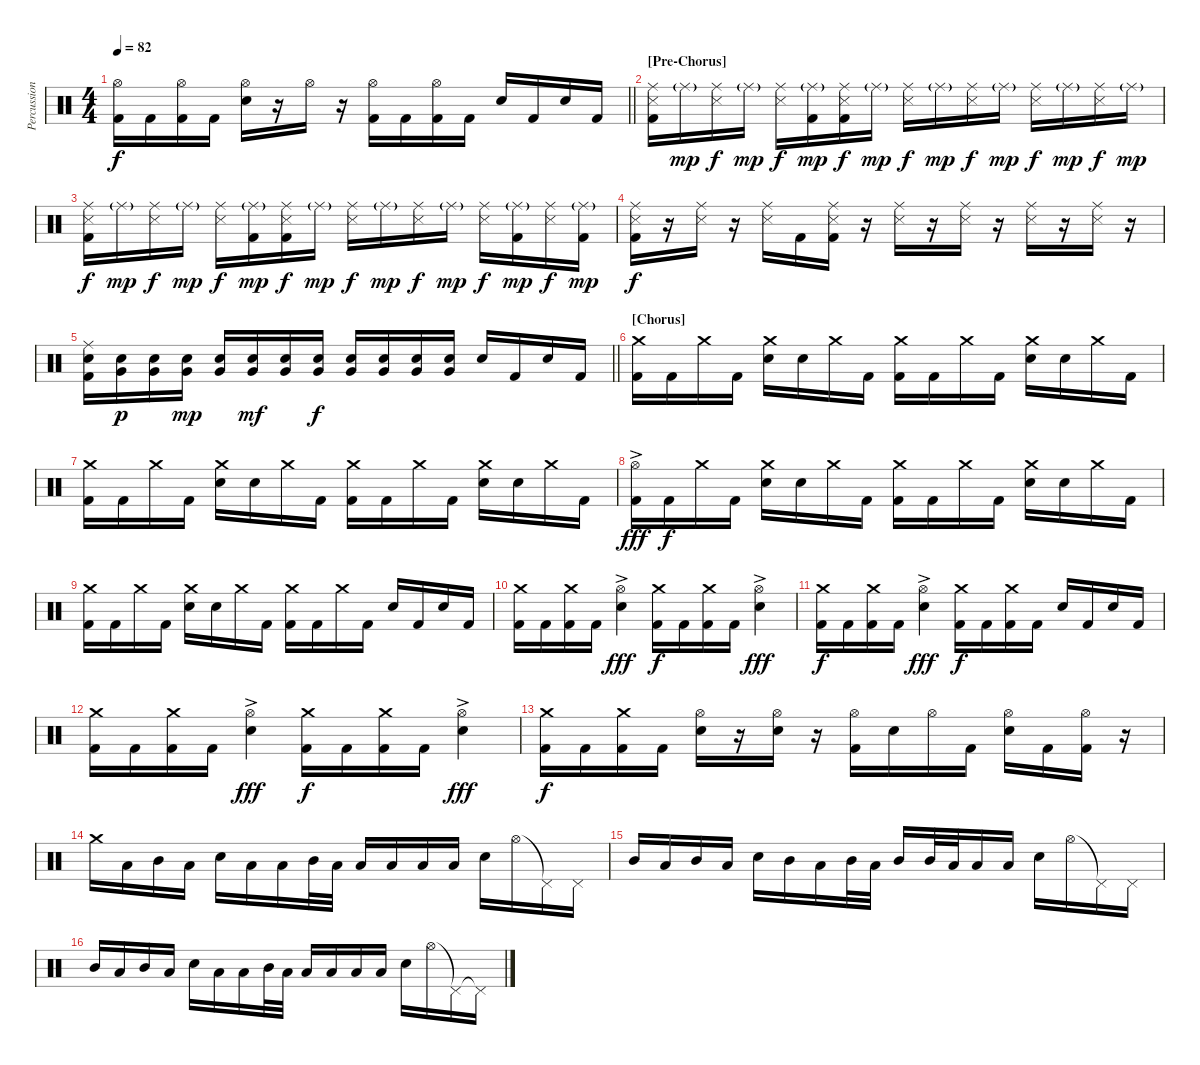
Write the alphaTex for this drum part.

\track ("Percussion" "Percussion") {instrument percussion}
\staff {score}
\articulation defaults
\ts (4 4)
\tempo 82
\clef neutral
\barLineRight lightlight
\ks c
("Hi-Hat (open)" "Kick (hit) 2").16{dy f} "Kick (hit) 2".16 ("Hi-Hat (open)" "Kick (hit) 2").16 "Kick (hit) 2".16 ("Hi-Hat (open)" "Electric Snare (hit)").16 r.16 "Hi-Hat (open)".16 r.16 ("Hi-Hat (open)" "Kick (hit) 2").16 "Kick (hit) 2".16 ("Hi-Hat (open)" "Kick (hit) 2").16 "Kick (hit) 2".16 "Electric Snare (hit)".16 "Kick (hit) 2".16 "Electric Snare (hit)".16 "Kick (hit) 2".16 |
\section ("" "[Pre-Chorus]")
("Ride (middle)" "Snare (side stick) 3" "Kick (hit) 2").16 "Ride (middle)"{g}.16{dy mp} ("Ride (middle)" "Snare (side stick) 3").16{dy f} "Ride (middle)"{g}.16{dy mp} ("Ride (middle)" "Snare (side stick) 3").16{dy f} ("Ride (middle)"{g} "Kick (hit) 2").16{dy mp} ("Ride (middle)" "Snare (side stick) 3" "Kick (hit) 2").16{dy f} "Ride (middle)"{g}.16{dy mp} ("Ride (middle)" "Snare (side stick) 3").16{dy f} "Ride (middle)"{g}.16{dy mp} ("Ride (middle)" "Snare (side stick) 3").16{dy f} "Ride (middle)"{g}.16{dy mp} ("Ride (middle)" "Snare (side stick) 3").16{dy f} "Ride (middle)"{g}.16{dy mp} ("Ride (middle)" "Snare (side stick) 3").16{dy f} "Ride (middle)"{g}.16{dy mp} |
("Ride (middle)" "Snare (side stick) 3" "Kick (hit) 2").16{dy f} "Ride (middle)"{g}.16{dy mp} ("Ride (middle)" "Snare (side stick) 3").16{dy f} "Ride (middle)"{g}.16{dy mp} ("Ride (middle)" "Snare (side stick) 3").16{dy f} ("Ride (middle)"{g} "Kick (hit) 2").16{dy mp} ("Ride (middle)" "Snare (side stick) 3" "Kick (hit) 2").16{dy f} "Ride (middle)"{g}.16{dy mp} ("Ride (middle)" "Snare (side stick) 3").16{dy f} "Ride (middle)"{g}.16{dy mp} ("Ride (middle)" "Snare (side stick) 3").16{dy f} "Ride (middle)"{g}.16{dy mp} ("Ride (middle)" "Snare (side stick) 3").16{dy f} ("Ride (middle)"{g} "Kick (hit) 2").16{dy mp} ("Ride (middle)" "Snare (side stick) 3").16{dy f} ("Ride (middle)"{g} "Kick (hit) 2").16{dy mp} |
("Ride (middle)" "Snare (side stick) 3" "Kick (hit) 2").16{dy f} r.16 ("Ride (middle)" "Snare (side stick) 3").16 r.16 ("Ride (middle)" "Snare (side stick) 3").16 "Kick (hit) 2".16 ("Ride (middle)" "Snare (side stick) 3" "Kick (hit) 2").16 r.16 ("Ride (middle)" "Snare (side stick) 3").16 r.16 ("Ride (middle)" "Snare (side stick) 3").16 r.16 ("Ride (middle)" "Snare (side stick) 3").16 r.16 ("Ride (middle)" "Snare (side stick) 3").16 r.16 |
\barLineRight lightlight
("Ride (middle)" "Electric Snare (hit)" "Kick (hit) 2").16 ("Electric Snare (hit)" "Very Low Tom (hit)").16{dy p} ("Electric Snare (hit)" "Very Low Tom (hit)").16 ("Electric Snare (hit)" "Very Low Tom (hit)").16{dy mp} ("Electric Snare (hit)" "Very Low Tom (hit)").16 ("Electric Snare (hit)" "Very Low Tom (hit)").16{dy mf} ("Electric Snare (hit)" "Very Low Tom (hit)").16 ("Electric Snare (hit)" "Very Low Tom (hit)").16{dy f} ("Electric Snare (hit)" "Very Low Tom (hit)").16 ("Electric Snare (hit)" "Very Low Tom (hit)").16 ("Electric Snare (hit)" "Very Low Tom (hit)").16 ("Electric Snare (hit)" "Very Low Tom (hit)").16 "Electric Snare (hit)".16 "Kick (hit) 2".16 "Electric Snare (hit)".16 "Kick (hit) 2".16 |
\section ("" "[Chorus]")
("Crash medium (hit)" "Kick (hit) 2").16 "Kick (hit) 2".16 "Crash medium (hit)".16 "Kick (hit) 2".16 ("Crash medium (hit)" "Electric Snare (hit)").16 "Electric Snare (hit)".16 "Crash medium (hit)".16 "Kick (hit) 2".16 ("Crash medium (hit)" "Kick (hit) 2").16 "Kick (hit) 2".16 "Crash medium (hit)".16 "Kick (hit) 2".16 ("Crash medium (hit)" "Electric Snare (hit)").16 "Electric Snare (hit)".16 "Crash medium (hit)".16 "Kick (hit) 2".16 |
("Crash medium (hit)" "Kick (hit) 2").16 "Kick (hit) 2".16 "Crash medium (hit)".16 "Kick (hit) 2".16 ("Crash medium (hit)" "Electric Snare (hit)").16 "Electric Snare (hit)".16 "Crash medium (hit)".16 "Kick (hit) 2".16 ("Crash medium (hit)" "Kick (hit) 2").16 "Kick (hit) 2".16 "Crash medium (hit)".16 "Kick (hit) 2".16 ("Crash medium (hit)" "Electric Snare (hit)").16 "Electric Snare (hit)".16 "Crash medium (hit)".16 "Kick (hit) 2".16 |
("Hi-Hat (open)"{ac} "Kick (hit) 2").16{dy fff} "Kick (hit) 2".16{dy f} "Crash medium (hit)".16 "Kick (hit) 2".16 ("Crash medium (hit)" "Electric Snare (hit)").16 "Electric Snare (hit)".16 "Crash medium (hit)".16 "Kick (hit) 2".16 ("Crash medium (hit)" "Kick (hit) 2").16 "Kick (hit) 2".16 "Crash medium (hit)".16 "Kick (hit) 2".16 ("Crash medium (hit)" "Electric Snare (hit)").16 "Electric Snare (hit)".16 "Crash medium (hit)".16 "Kick (hit) 2".16 |
("Crash medium (hit)" "Kick (hit) 2").16 "Kick (hit) 2".16 "Crash medium (hit)".16 "Kick (hit) 2".16 ("Crash medium (hit)" "Electric Snare (hit)").16 "Electric Snare (hit)".16 "Crash medium (hit)".16 "Kick (hit) 2".16 ("Crash medium (hit)" "Kick (hit) 2").16 "Kick (hit) 2".16 "Crash medium (hit)".16 "Kick (hit) 2".16 "Electric Snare (hit)".16 "Kick (hit) 2".16 "Electric Snare (hit)".16 "Kick (hit) 2".16 |
("Crash medium (hit)" "Kick (hit) 2").16 "Kick (hit) 2".16 ("Crash medium (hit)" "Kick (hit) 2").16 "Kick (hit) 2".16 ("Hi-Hat (open)"{ac} "Electric Snare (hit)").4{dy fff} ("Crash medium (hit)" "Kick (hit) 2").16{dy f} "Kick (hit) 2".16 ("Crash medium (hit)" "Kick (hit) 2").16 "Kick (hit) 2".16 ("Hi-Hat (open)"{ac} "Electric Snare (hit)").4{dy fff} |
("Crash medium (hit)" "Kick (hit) 2").16{dy f} "Kick (hit) 2".16 ("Crash medium (hit)" "Kick (hit) 2").16 "Kick (hit) 2".16 ("Hi-Hat (open)"{ac} "Electric Snare (hit)").4{dy fff} ("Crash medium (hit)" "Kick (hit) 2").16{dy f} "Kick (hit) 2".16 ("Crash medium (hit)" "Kick (hit) 2").16 "Kick (hit) 2".16 "Electric Snare (hit)".16 "Kick (hit) 2".16 "Electric Snare (hit)".16 "Kick (hit) 2".16 |
("Crash medium (hit)" "Kick (hit) 2").16 "Kick (hit) 2".16 ("Crash medium (hit)" "Kick (hit) 2").16 "Kick (hit) 2".16 ("Hi-Hat (open)"{ac} "Electric Snare (hit)").4{dy fff} ("Crash medium (hit)" "Kick (hit) 2").16{dy f} "Kick (hit) 2".16 ("Crash medium (hit)" "Kick (hit) 2").16 "Kick (hit) 2".16 ("Hi-Hat (open)"{ac} "Electric Snare (hit)").4{dy fff} |
("Crash medium (hit)" "Kick (hit) 2").16{dy f} "Kick (hit) 2".16 ("Crash medium (hit)" "Kick (hit) 2").16 "Kick (hit) 2".16 ("Hi-Hat (open)" "Electric Snare (hit)").16 r.16 ("Hi-Hat (open)" "Electric Snare (hit)").16 r.16 ("Hi-Hat (open)" "Kick (hit) 2").16 "Electric Snare (hit)".16 "Hi-Hat (open)".16 "Kick (hit) 2".16 ("Hi-Hat (open)" "Electric Snare (hit)").16 "Kick (hit) 2".16 ("Hi-Hat (open)" "Kick (hit) 2").16 r.16 |
"Crash medium (hit)".16 "Low Tom (hit)".16 "Mid Tom (hit)".16 "Low Tom (hit)".16 "Electric Snare (hit)".16 "Low Tom (hit)".16 "Low Tom (hit)".16 "Mid Tom (hit)".32 "Low Tom (hit)".32 "Low Tom (hit)".16 "Low Tom (hit)".16 "Low Tom (hit)".16 "Low Tom (hit)".16 "Electric Snare (hit)".16 "Hi-Hat (open)".16 "Pedal Hi-Hat (hit)"{t}.16 "Pedal Hi-Hat (hit)".16 |
"Mid Tom (hit)".16 "Low Tom (hit)".16 "Mid Tom (hit)".16 "Low Tom (hit)".16 "Electric Snare (hit)".16 "Mid Tom (hit)".16 "Low Tom (hit)".16 "Mid Tom (hit)".32 "Low Tom (hit)".32 "Mid Tom (hit)".16 "Mid Tom (hit)".32 "Low Tom (hit)".32 "Low Tom (hit)".16 "Low Tom (hit)".16 "Electric Snare (hit)".16 "Hi-Hat (open)".16 "Pedal Hi-Hat (hit)"{t}.16 "Pedal Hi-Hat (hit)".16 |
"Mid Tom (hit)".16 "Low Tom (hit)".16 "Mid Tom (hit)".16 "Low Tom (hit)".16 "Electric Snare (hit)".16 "Low Tom (hit)".16 "Low Tom (hit)".16 "Mid Tom (hit)".32 "Low Tom (hit)".32 "Low Tom (hit)".16 "Low Tom (hit)".16 "Low Tom (hit)".16 "Low Tom (hit)".16 "Electric Snare (hit)".16 "Hi-Hat (open)".16 "Pedal Hi-Hat (hit)"{t}.16 "Pedal Hi-Hat (hit)"{t}.16
